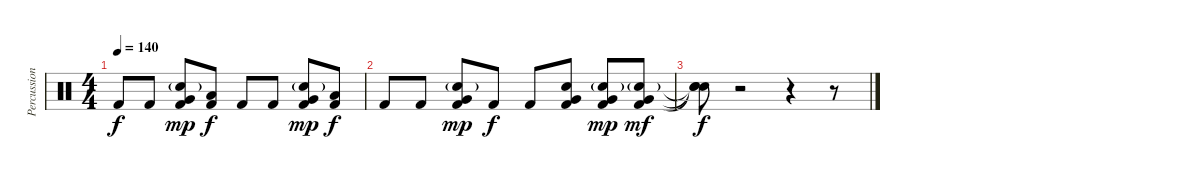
\track ("Percussion" "Percussion") {instrument percussion}
\staff {score}
\articulation defaults
\ts (4 4)
\tempo 140
\clef neutral
\ks c "Kick (hit) 2".8{dy f} "Kick (hit) 2".8
("Very Low Tom (hit)" "Electric Snare (hit)"{g} "Kick (hit) 2").8{dy mp} ("Low Floor Tom (hit)" "Kick (hit) 2").8{dy f} "Kick (hit) 2".8 "Kick (hit) 2".8 ("Very Low Tom (hit)" "Electric Snare (hit)"{g} "Kick (hit) 2").8{dy mp} ("Low Floor Tom (hit)" "Kick (hit) 2").8{dy f} |
"Kick (hit) 2".8 "Kick (hit) 2".8 ("Very Low Tom (hit)" "Electric Snare (hit)"{g} "Kick (hit) 2").8{dy mp} "Kick (hit) 2".8{dy f} "Kick (hit) 2".8 ("Very Low Tom (hit)" "Electric Snare (hit)" "Kick (hit) 2").8 ("Very Low Tom (hit)" "Electric Snare (hit)"{g} "Kick (hit) 2").8{dy mp} ("Very Low Tom (hit)" "Electric Snare (hit)"{g} "Kick (hit) 2").8{dy mf} |
("Snare (hit)"{t} "Snare (hit)"{t} "Snare (hit)"{t}).8{dy f} r.2 r.4 r.8
